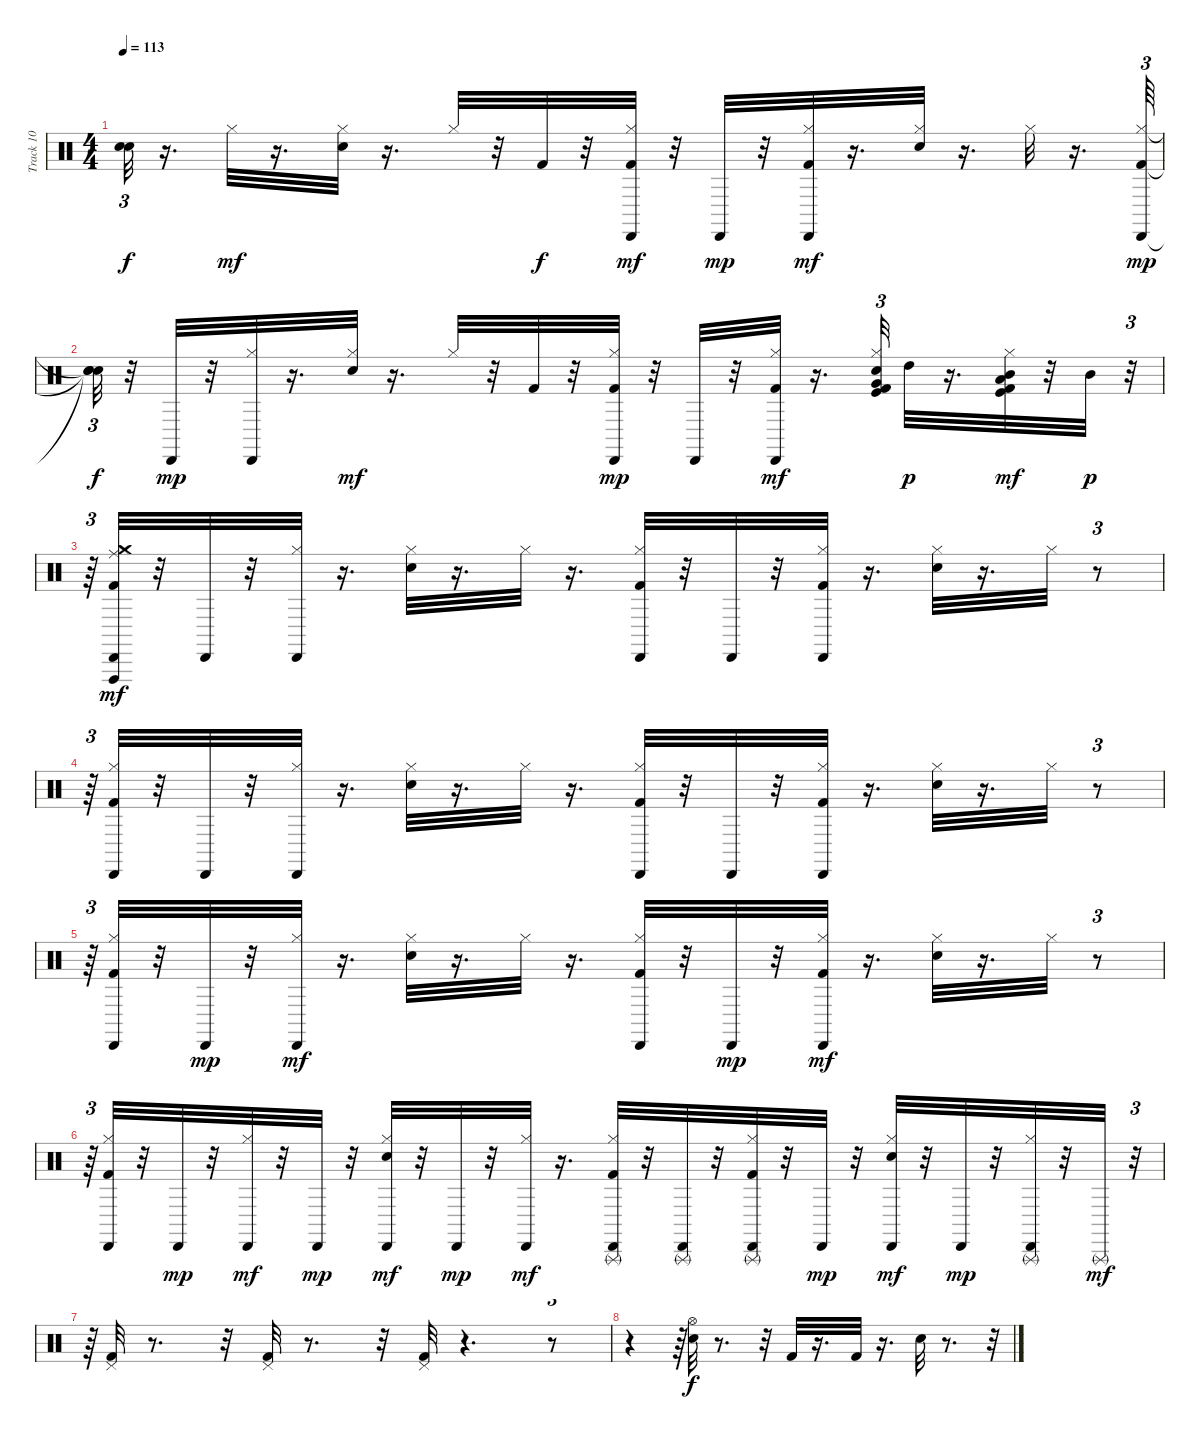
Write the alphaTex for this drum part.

\track ("Track 10" "Track 10") {instrument percussion}
\staff {score}
\articulation defaults
\ts (4 4)
\tempo 113
\clef neutral
\ks c
("Snare (hit)"{t} "Snare (hit)"{t}).32{tu (3 2) dy f} r.16{d} "Hi-Hat (closed)".32{dy mf} r.16{d} ("Hi-Hat (closed)" "Snare (hit) 2").32 r.16{d} "Hi-Hat (closed)".32 r.32 "Kick (hit) 2".32{dy f} r.32 ("Cabasa (hit)" "Hi-Hat (closed)" "Kick (hit) 2").32{dy mf} r.32 "Cabasa (hit)".32{dy mp} r.32 ("Cabasa (hit)" "Kick (hit) 2" "Hi-Hat (closed)").32{dy mf} r.16{d} ("Snare (hit) 2" "Hi-Hat (closed)").32 r.16{d} "Hi-Hat (closed)".32 r.16{d} ("Kick (hit) 2" "Hi-Hat (closed)" "Cabasa (hit)").64{tu (3 2) dy mp} |
("Snare (hit)"{t} "Snare (hit)"{t} "Snare (hit)"{t}).32{tu (3 2) dy f} r.32 "Cabasa (hit)".32{dy mp} r.32 ("Hi-Hat (closed)" "Cabasa (hit)").32 r.16{d} ("Snare (hit) 2" "Hi-Hat (closed)").32{dy mf} r.16{d} "Hi-Hat (closed)".32 r.32 "Kick (hit) 2".32 r.32 ("Kick (hit) 2" "Hi-Hat (closed)" "Cabasa (hit)").32{dy mp} r.32 "Cabasa (hit)".32 r.32 ("Hi-Hat (closed)" "Cabasa (hit)" "Kick (hit) 2").32{dy mf} r.16{d} ("Hi-Hat (closed)" "Very Low Tom (hit)" "Snare (hit) 2" "Kick (hit) 2" "Kick (hit)").32{tu (3 2)} "High Tom (hit)".32{dy p} r.16{d} ("Hi-Hat (closed)" "Low Floor Tom (hit)" "Kick (hit) 2" "Kick (hit)" "Mid Tom (hit)").32{dy mf} r.32 "Mid Tom (hit)".32{dy p} r.32{tu (3 2)} |
r.64{tu (3 2)} ("Crash medium (hit)" "Vibraslap (hit)" "Ride (middle)" "Cabasa (hit)" "Hi-Hat (closed)" "Kick (hit) 2").32{dy mf} r.32 "Cabasa (hit)".32 r.32 ("Hi-Hat (closed)" "Cabasa (hit)").32 r.16{d} ("Hi-Hat (closed)" "Snare (hit) 2").32 r.16{d} "Hi-Hat (closed)".32 r.16{d} ("Cabasa (hit)" "Hi-Hat (closed)" "Kick (hit) 2").32 r.32 "Cabasa (hit)".32 r.32 ("Cabasa (hit)" "Hi-Hat (closed)" "Kick (hit) 2").32 r.16{d} ("Hi-Hat (closed)" "Snare (hit) 2").32 r.16{d} "Hi-Hat (closed)".32 r.8{tu (3 2)} |
r.64{tu (3 2)} ("Hi-Hat (closed)" "Kick (hit) 2" "Cabasa (hit)").32 r.32 "Cabasa (hit)".32 r.32 ("Hi-Hat (closed)" "Cabasa (hit)").32 r.16{d} ("Hi-Hat (closed)" "Snare (hit) 2").32 r.16{d} "Hi-Hat (closed)".32 r.16{d} ("Cabasa (hit)" "Hi-Hat (closed)" "Kick (hit) 2").32 r.32 "Cabasa (hit)".32 r.32 ("Cabasa (hit)" "Hi-Hat (closed)" "Kick (hit) 2").32 r.16{d} ("Hi-Hat (closed)" "Snare (hit) 2").32 r.16{d} "Hi-Hat (closed)".32 r.8{tu (3 2)} |
r.64{tu (3 2)} ("Cabasa (hit)" "Hi-Hat (closed)" "Kick (hit) 2").32 r.32 "Cabasa (hit)".32{dy mp} r.32 ("Cabasa (hit)" "Hi-Hat (closed)").32{dy mf} r.16{d} ("Snare (hit) 2" "Hi-Hat (closed)").32 r.16{d} "Hi-Hat (closed)".32 r.16{d} ("Cabasa (hit)" "Kick (hit) 2" "Hi-Hat (closed)").32 r.32 "Cabasa (hit)".32{dy mp} r.32 ("Cabasa (hit)" "Kick (hit) 2" "Hi-Hat (closed)").32{dy mf} r.16{d} ("Snare (hit) 2" "Hi-Hat (closed)").32 r.16{d} "Hi-Hat (closed)".32 r.8{tu (3 2)} |
r.64{tu (3 2)} ("Kick (hit) 2" "Cabasa (hit)" "Hi-Hat (closed)").32 r.32 "Cabasa (hit)".32{dy mp} r.32 ("Cabasa (hit)" "Hi-Hat (closed)").32{dy mf} r.32 "Cabasa (hit)".32{dy mp} r.32 ("Cabasa (hit)" "Snare (hit) 2" "Hi-Hat (closed)").32{dy mf} r.32 "Cabasa (hit)".32{dy mp} r.32 ("Cabasa (hit)" "Hi-Hat (closed)").32{dy mf} r.16{d} ("Cabasa (hit)" "Hi-Hat (closed)" "Kick (hit) 2" "Triangle (rnute)").32 r.32 ("Cabasa (hit)" "Triangle (rnute)").32 r.32 ("Hi-Hat (closed)" "Cabasa (hit)" "Triangle (rnute)" "Kick (hit) 2").32 r.32 "Cabasa (hit)".32{dy mp} r.32 ("Cabasa (hit)" "Hi-Hat (closed)" "Snare (hit) 2").32{dy mf} r.32 "Cabasa (hit)".32{dy mp} r.32 ("Triangle (rnute)" "Hi-Hat (closed)" "Cabasa (hit)").32 r.32 "Triangle (rnute)".32{dy mf} r.32{tu (3 2)} |
r.64{tu (3 2)} ("Pedal Hi-Hat (hit)" "Kick (hit) 2").32 r.8{d} r.32 ("Pedal Hi-Hat (hit)" "Kick (hit) 2").32 r.8{d} r.32 ("Pedal Hi-Hat (hit)" "Kick (hit) 2").32 r.4{d} r.8{tu (3 2)} |
r.4 r.64{tu (3 2)} ("Hi-Hat (open)" "Snare (hit) 2").32{dy f} r.8{d} r.32 "Kick (hit) 2".32 r.16{d} "Kick (hit) 2".32 r.16{d} "Snare (hit) 2".32 r.8{d} r.32{tu (3 2)}
